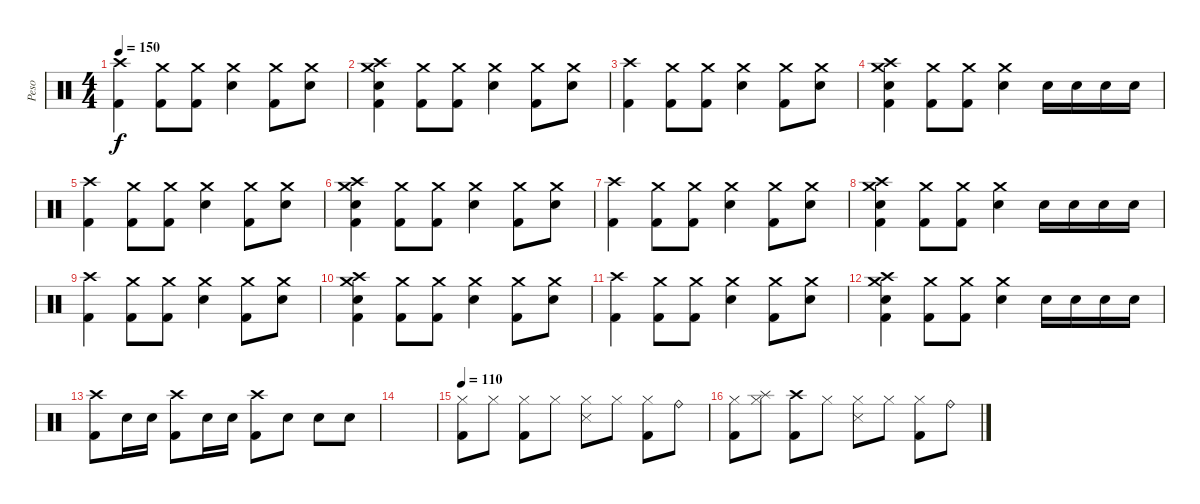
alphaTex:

\track ("Peso" "Peso") {instrument percussion}
\staff {score}
\articulation defaults
\ts (4 4)
\tempo 150
\clef neutral
\ks c
("Crash high (hit)" "Kick (hit) 2").4{dy f} ("Crash medium (hit)" "Kick (hit) 2").8 ("Crash medium (hit)" "Kick (hit) 2").8 ("Crash medium (hit)" "Snare (hit) 2").4 ("Crash medium (hit)" "Kick (hit) 2").8 ("Crash medium (hit)" "Snare (hit) 2").8 |
("Crash high (hit)" "Crash medium (hit)" "Snare (hit) 2" "Kick (hit) 2").4 ("Crash medium (hit)" "Kick (hit) 2").8 ("Crash medium (hit)" "Kick (hit) 2").8 ("Crash medium (hit)" "Snare (hit) 2").4 ("Crash medium (hit)" "Kick (hit) 2").8 ("Crash medium (hit)" "Snare (hit) 2").8 |
("Crash high (hit)" "Kick (hit) 2").4 ("Crash medium (hit)" "Kick (hit) 2").8 ("Crash medium (hit)" "Kick (hit) 2").8 ("Crash medium (hit)" "Snare (hit) 2").4 ("Crash medium (hit)" "Kick (hit) 2").8 ("Crash medium (hit)" "Snare (hit) 2").8 |
("Crash high (hit)" "Crash medium (hit)" "Snare (hit) 2" "Kick (hit) 2").4 ("Crash medium (hit)" "Kick (hit) 2").8 ("Crash medium (hit)" "Kick (hit) 2").8 ("Crash medium (hit)" "Snare (hit) 2").4 "Snare (hit) 2".16 "Snare (hit) 2".16 "Snare (hit) 2".16 "Snare (hit) 2".16 |
("Crash high (hit)" "Kick (hit) 2").4 ("Crash medium (hit)" "Kick (hit) 2").8 ("Crash medium (hit)" "Kick (hit) 2").8 ("Crash medium (hit)" "Snare (hit) 2").4 ("Crash medium (hit)" "Kick (hit) 2").8 ("Crash medium (hit)" "Snare (hit) 2").8 |
("Crash high (hit)" "Crash medium (hit)" "Snare (hit) 2" "Kick (hit) 2").4 ("Crash medium (hit)" "Kick (hit) 2").8 ("Crash medium (hit)" "Kick (hit) 2").8 ("Crash medium (hit)" "Snare (hit) 2").4 ("Crash medium (hit)" "Kick (hit) 2").8 ("Crash medium (hit)" "Snare (hit) 2").8 |
("Crash high (hit)" "Kick (hit) 2").4 ("Crash medium (hit)" "Kick (hit) 2").8 ("Crash medium (hit)" "Kick (hit) 2").8 ("Crash medium (hit)" "Snare (hit) 2").4 ("Crash medium (hit)" "Kick (hit) 2").8 ("Crash medium (hit)" "Snare (hit) 2").8 |
("Crash high (hit)" "Crash medium (hit)" "Snare (hit) 2" "Kick (hit) 2").4 ("Crash medium (hit)" "Kick (hit) 2").8 ("Crash medium (hit)" "Kick (hit) 2").8 ("Crash medium (hit)" "Snare (hit) 2").4 "Snare (hit) 2".16 "Snare (hit) 2".16 "Snare (hit) 2".16 "Snare (hit) 2".16 |
("Crash high (hit)" "Kick (hit) 2").4 ("Crash medium (hit)" "Kick (hit) 2").8 ("Crash medium (hit)" "Kick (hit) 2").8 ("Crash medium (hit)" "Snare (hit) 2").4 ("Crash medium (hit)" "Kick (hit) 2").8 ("Crash medium (hit)" "Snare (hit) 2").8 |
("Crash high (hit)" "Crash medium (hit)" "Snare (hit) 2" "Kick (hit) 2").4 ("Crash medium (hit)" "Kick (hit) 2").8 ("Crash medium (hit)" "Kick (hit) 2").8 ("Crash medium (hit)" "Snare (hit) 2").4 ("Crash medium (hit)" "Kick (hit) 2").8 ("Crash medium (hit)" "Snare (hit) 2").8 |
("Crash high (hit)" "Kick (hit) 2").4 ("Crash medium (hit)" "Kick (hit) 2").8 ("Crash medium (hit)" "Kick (hit) 2").8 ("Crash medium (hit)" "Snare (hit) 2").4 ("Crash medium (hit)" "Kick (hit) 2").8 ("Crash medium (hit)" "Snare (hit) 2").8 |
("Crash high (hit)" "Crash medium (hit)" "Snare (hit) 2" "Kick (hit) 2").4 ("Crash medium (hit)" "Kick (hit) 2").8 ("Crash medium (hit)" "Kick (hit) 2").8 ("Crash medium (hit)" "Snare (hit) 2").4 "Snare (hit) 2".16 "Snare (hit) 2".16 "Snare (hit) 2".16 "Snare (hit) 2".16 |
("Crash high (hit)" "Kick (hit) 2").8 "Snare (hit) 2".16 "Snare (hit) 2".16 ("Crash high (hit)" "Kick (hit) 2").8 "Snare (hit) 2".16 "Snare (hit) 2".16 ("Crash high (hit)" "Kick (hit) 2").8 "Snare (hit)"{x}.8 "Snare (hit)"{x}.8 "Snare (hit)"{x}.8 |
|
\tempo 110
("Hi-Hat (closed)" "Kick (hit) 2").8 "Hi-Hat (closed)"{x}.8 ("Hi-Hat (closed)" "Kick (hit) 2").8 "Hi-Hat (closed)"{x}.8 ("Hi-Hat (closed)" "Snare (side stick) 3").8 "Hi-Hat (closed)"{x}.8 ("Hi-Hat (closed)" "Kick (hit) 2").8 "Ride (bell)".8 |
("Hi-Hat (closed)" "Kick (hit) 2").8 ("Splash (hit)" "Hi-Hat (closed)"{x}).8 ("Crash high (hit)" "Kick (hit) 2").8 "Hi-Hat (closed)"{x}.8 ("Hi-Hat (closed)" "Snare (side stick) 3").8 "Hi-Hat (closed)"{x}.8 ("Hi-Hat (closed)" "Kick (hit) 2").8 "Ride (bell)".8
